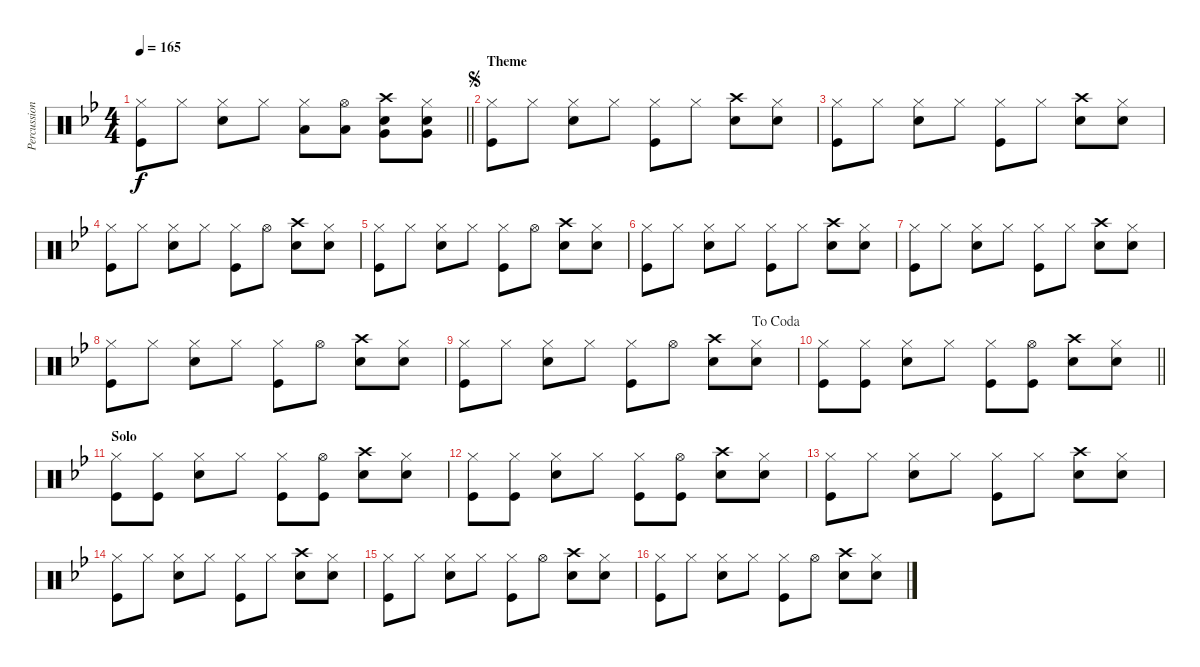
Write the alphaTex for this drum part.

\track ("Percussions" "Percussion") {instrument percussion}
\staff {score}
\articulation defaults
\ts (4 4)
\tempo 165
\clef neutral
\barLineRight lightlight
\ks bb
("Hi-Hat (closed)" "Kick (hit)").8{dy f} "Hi-Hat (closed)".8 ("Hi-Hat (closed)" "Snare (hit) 2").8 "Hi-Hat (closed)".8 ("Hi-Hat (closed)" "Low Floor Tom (hit)").8 ("Hi-Hat (open)" "Low Floor Tom (hit)").8 ("Crash high (hit)" "Snare (hit) 2" "Very Low Tom (hit)").8 ("Hi-Hat (closed)" "Snare (hit) 2" "Very Low Tom (hit)").8 |
\section ("" "Theme")
\jump segno
("Hi-Hat (closed)" "Kick (hit)").8 "Hi-Hat (closed)".8 ("Hi-Hat (closed)" "Snare (hit) 2").8 "Hi-Hat (closed)".8 ("Hi-Hat (closed)" "Kick (hit)").8 "Hi-Hat (closed)".8 ("Crash high (hit)" "Snare (hit) 2").8 ("Hi-Hat (closed)" "Snare (hit) 2").8 |
("Hi-Hat (closed)" "Kick (hit)").8 "Hi-Hat (closed)".8 ("Hi-Hat (closed)" "Snare (hit) 2").8 "Hi-Hat (closed)".8 ("Hi-Hat (closed)" "Kick (hit)").8 "Hi-Hat (closed)".8 ("Crash high (hit)" "Snare (hit) 2").8 ("Hi-Hat (closed)" "Snare (hit) 2").8 |
("Hi-Hat (closed)" "Kick (hit)").8 "Hi-Hat (closed)".8 ("Hi-Hat (closed)" "Snare (hit) 2").8 "Hi-Hat (closed)".8 ("Hi-Hat (closed)" "Kick (hit)").8 "Hi-Hat (open)".8 ("Crash high (hit)" "Snare (hit) 2").8 ("Hi-Hat (closed)" "Snare (hit) 2").8 |
("Hi-Hat (closed)" "Kick (hit)").8 "Hi-Hat (closed)".8 ("Hi-Hat (closed)" "Snare (hit) 2").8 "Hi-Hat (closed)".8 ("Hi-Hat (closed)" "Kick (hit)").8 "Hi-Hat (open)".8 ("Crash high (hit)" "Snare (hit) 2").8 ("Hi-Hat (closed)" "Snare (hit) 2").8 |
("Hi-Hat (closed)" "Kick (hit)").8 "Hi-Hat (closed)".8 ("Hi-Hat (closed)" "Snare (hit) 2").8 "Hi-Hat (closed)".8 ("Hi-Hat (closed)" "Kick (hit)").8 "Hi-Hat (closed)".8 ("Crash high (hit)" "Snare (hit) 2").8 ("Hi-Hat (closed)" "Snare (hit) 2").8 |
("Hi-Hat (closed)" "Kick (hit)").8 "Hi-Hat (closed)".8 ("Hi-Hat (closed)" "Snare (hit) 2").8 "Hi-Hat (closed)".8 ("Hi-Hat (closed)" "Kick (hit)").8 "Hi-Hat (closed)".8 ("Crash high (hit)" "Snare (hit) 2").8 ("Hi-Hat (closed)" "Snare (hit) 2").8 |
("Hi-Hat (closed)" "Kick (hit)").8 "Hi-Hat (closed)".8 ("Hi-Hat (closed)" "Snare (hit) 2").8 "Hi-Hat (closed)".8 ("Hi-Hat (closed)" "Kick (hit)").8 "Hi-Hat (open)".8 ("Crash high (hit)" "Snare (hit) 2").8 ("Hi-Hat (closed)" "Snare (hit) 2").8 |
\jump dacoda
("Hi-Hat (closed)" "Kick (hit)").8 "Hi-Hat (closed)".8 ("Hi-Hat (closed)" "Snare (hit) 2").8 "Hi-Hat (closed)".8 ("Hi-Hat (closed)" "Kick (hit)").8 "Hi-Hat (open)".8 ("Crash high (hit)" "Snare (hit) 2").8 ("Hi-Hat (closed)" "Snare (hit) 2").8 |
\barLineRight lightlight
("Hi-Hat (closed)" "Kick (hit)").8 ("Hi-Hat (closed)" "Kick (hit)").8 ("Hi-Hat (closed)" "Snare (hit) 2").8 "Hi-Hat (closed)".8 ("Hi-Hat (closed)" "Kick (hit)").8 ("Hi-Hat (open)" "Kick (hit)").8 ("Crash high (hit)" "Snare (hit) 2").8 ("Hi-Hat (closed)" "Snare (hit) 2").8 |
\section ("" "Solo")
("Hi-Hat (closed)" "Kick (hit)").8 ("Hi-Hat (closed)" "Kick (hit)").8 ("Hi-Hat (closed)" "Snare (hit) 2").8 "Hi-Hat (closed)".8 ("Hi-Hat (closed)" "Kick (hit)").8 ("Hi-Hat (open)" "Kick (hit)").8 ("Crash high (hit)" "Snare (hit) 2").8 ("Hi-Hat (closed)" "Snare (hit) 2").8 |
("Hi-Hat (closed)" "Kick (hit)").8 ("Hi-Hat (closed)" "Kick (hit)").8 ("Hi-Hat (closed)" "Snare (hit) 2").8 "Hi-Hat (closed)".8 ("Hi-Hat (closed)" "Kick (hit)").8 ("Hi-Hat (open)" "Kick (hit)").8 ("Crash high (hit)" "Snare (hit) 2").8 ("Hi-Hat (closed)" "Snare (hit) 2").8 |
("Hi-Hat (closed)" "Kick (hit)").8 "Hi-Hat (closed)".8 ("Hi-Hat (closed)" "Snare (hit) 2").8 "Hi-Hat (closed)".8 ("Hi-Hat (closed)" "Kick (hit)").8 "Hi-Hat (closed)".8 ("Crash high (hit)" "Snare (hit) 2").8 ("Hi-Hat (closed)" "Snare (hit) 2").8 |
("Hi-Hat (closed)" "Kick (hit)").8 "Hi-Hat (closed)".8 ("Hi-Hat (closed)" "Snare (hit) 2").8 "Hi-Hat (closed)".8 ("Hi-Hat (closed)" "Kick (hit)").8 "Hi-Hat (closed)".8 ("Crash high (hit)" "Snare (hit) 2").8 ("Hi-Hat (closed)" "Snare (hit) 2").8 |
("Hi-Hat (closed)" "Kick (hit)").8 "Hi-Hat (closed)".8 ("Hi-Hat (closed)" "Snare (hit) 2").8 "Hi-Hat (closed)".8 ("Hi-Hat (closed)" "Kick (hit)").8 "Hi-Hat (open)".8 ("Crash high (hit)" "Snare (hit) 2").8 ("Hi-Hat (closed)" "Snare (hit) 2").8 |
("Hi-Hat (closed)" "Kick (hit)").8 "Hi-Hat (closed)".8 ("Hi-Hat (closed)" "Snare (hit) 2").8 "Hi-Hat (closed)".8 ("Hi-Hat (closed)" "Kick (hit)").8 "Hi-Hat (open)".8 ("Crash high (hit)" "Snare (hit) 2").8 ("Hi-Hat (closed)" "Snare (hit) 2").8
